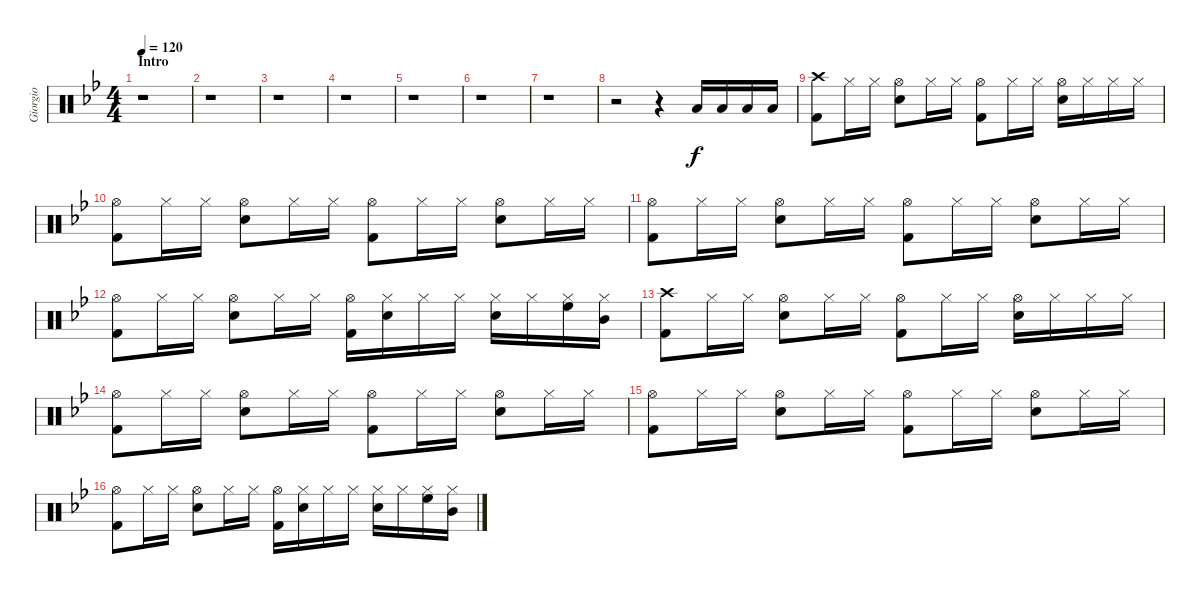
\track ("Giorgio" "Giorgio") {instrument percussion}
\staff {score}
\articulation defaults
\ts (4 4)
\section ("" "Intro")
\tempo 120
\clef neutral
\ks gminor
r.1{dy f} |
r.1 |
r.1 |
r.1 |
r.1 |
r.1 |
r.1 |
r.2 r.4 "Low Tom (hit)".16 "Low Tom (hit)".16 "Low Floor Tom (hit)".16 "Low Floor Tom (hit)".16 |
("Crash high (hit)" "Kick (hit) 2").8 "Hi-Hat (closed)".16 "Hi-Hat (closed)".16 ("Hi-Hat (open)" "Snare (hit) 2").8 "Hi-Hat (closed)".16 "Hi-Hat (closed)".16 ("Hi-Hat (open)" "Kick (hit) 2").8 "Hi-Hat (closed)".16 "Hi-Hat (closed)".16 ("Hi-Hat (open)" "Snare (hit) 2").16 "Hi-Hat (closed)".16 "Hi-Hat (closed)".16 "Hi-Hat (closed)".16 |
("Hi-Hat (open)" "Kick (hit) 2").8 "Hi-Hat (closed)".16 "Hi-Hat (closed)".16 ("Hi-Hat (open)" "Snare (hit) 2").8 "Hi-Hat (closed)".16 "Hi-Hat (closed)".16 ("Hi-Hat (open)" "Kick (hit) 2").8 "Hi-Hat (closed)".16 "Hi-Hat (closed)".16 ("Hi-Hat (open)" "Snare (hit) 2").8 "Hi-Hat (closed)".16 "Hi-Hat (closed)".16 |
("Hi-Hat (open)" "Kick (hit) 2").8 "Hi-Hat (closed)".16 "Hi-Hat (closed)".16 ("Hi-Hat (open)" "Snare (hit) 2").8 "Hi-Hat (closed)".16 "Hi-Hat (closed)".16 ("Hi-Hat (open)" "Kick (hit) 2").8 "Hi-Hat (closed)".16 "Hi-Hat (closed)".16 ("Hi-Hat (open)" "Snare (hit) 2").8 "Hi-Hat (closed)".16 "Hi-Hat (closed)".16 |
("Hi-Hat (open)" "Kick (hit) 2").8 "Hi-Hat (closed)".16 "Hi-Hat (closed)".16 ("Hi-Hat (open)" "Snare (hit) 2").8 "Hi-Hat (closed)".16 "Hi-Hat (closed)".16 ("Hi-Hat (open)" "Kick (hit) 2").16 ("Hi-Hat (closed)" "Snare (hit) 2").16 "Hi-Hat (closed)".16 "Hi-Hat (closed)".16 ("Hi-Hat (closed)" "Snare (hit) 2").16 "Hi-Hat (closed)".16 ("Hi-Hat (closed)" "High Floor Tom (hit)").16 ("Hi-Hat (closed)" "Mid Tom (hit)").16 |
("Crash high (hit)" "Kick (hit) 2").8 "Hi-Hat (closed)".16 "Hi-Hat (closed)".16 ("Hi-Hat (open)" "Snare (hit) 2").8 "Hi-Hat (closed)".16 "Hi-Hat (closed)".16 ("Hi-Hat (open)" "Kick (hit) 2").8 "Hi-Hat (closed)".16 "Hi-Hat (closed)".16 ("Hi-Hat (open)" "Snare (hit) 2").16 "Hi-Hat (closed)".16 "Hi-Hat (closed)".16 "Hi-Hat (closed)".16 |
("Hi-Hat (open)" "Kick (hit) 2").8 "Hi-Hat (closed)".16 "Hi-Hat (closed)".16 ("Hi-Hat (open)" "Snare (hit) 2").8 "Hi-Hat (closed)".16 "Hi-Hat (closed)".16 ("Hi-Hat (open)" "Kick (hit) 2").8 "Hi-Hat (closed)".16 "Hi-Hat (closed)".16 ("Hi-Hat (open)" "Snare (hit) 2").8 "Hi-Hat (closed)".16 "Hi-Hat (closed)".16 |
("Hi-Hat (open)" "Kick (hit) 2").8 "Hi-Hat (closed)".16 "Hi-Hat (closed)".16 ("Hi-Hat (open)" "Snare (hit) 2").8 "Hi-Hat (closed)".16 "Hi-Hat (closed)".16 ("Hi-Hat (open)" "Kick (hit) 2").8 "Hi-Hat (closed)".16 "Hi-Hat (closed)".16 ("Hi-Hat (open)" "Snare (hit) 2").8 "Hi-Hat (closed)".16 "Hi-Hat (closed)".16 |
("Hi-Hat (open)" "Kick (hit) 2").8 "Hi-Hat (closed)".16 "Hi-Hat (closed)".16 ("Hi-Hat (open)" "Snare (hit) 2").8 "Hi-Hat (closed)".16 "Hi-Hat (closed)".16 ("Hi-Hat (open)" "Kick (hit) 2").16 ("Hi-Hat (closed)" "Snare (hit) 2").16 "Hi-Hat (closed)".16 "Hi-Hat (closed)".16 ("Hi-Hat (closed)" "Snare (hit) 2").16 "Hi-Hat (closed)".16 ("Hi-Hat (closed)" "High Floor Tom (hit)").16 ("Hi-Hat (closed)" "Mid Tom (hit)").16
